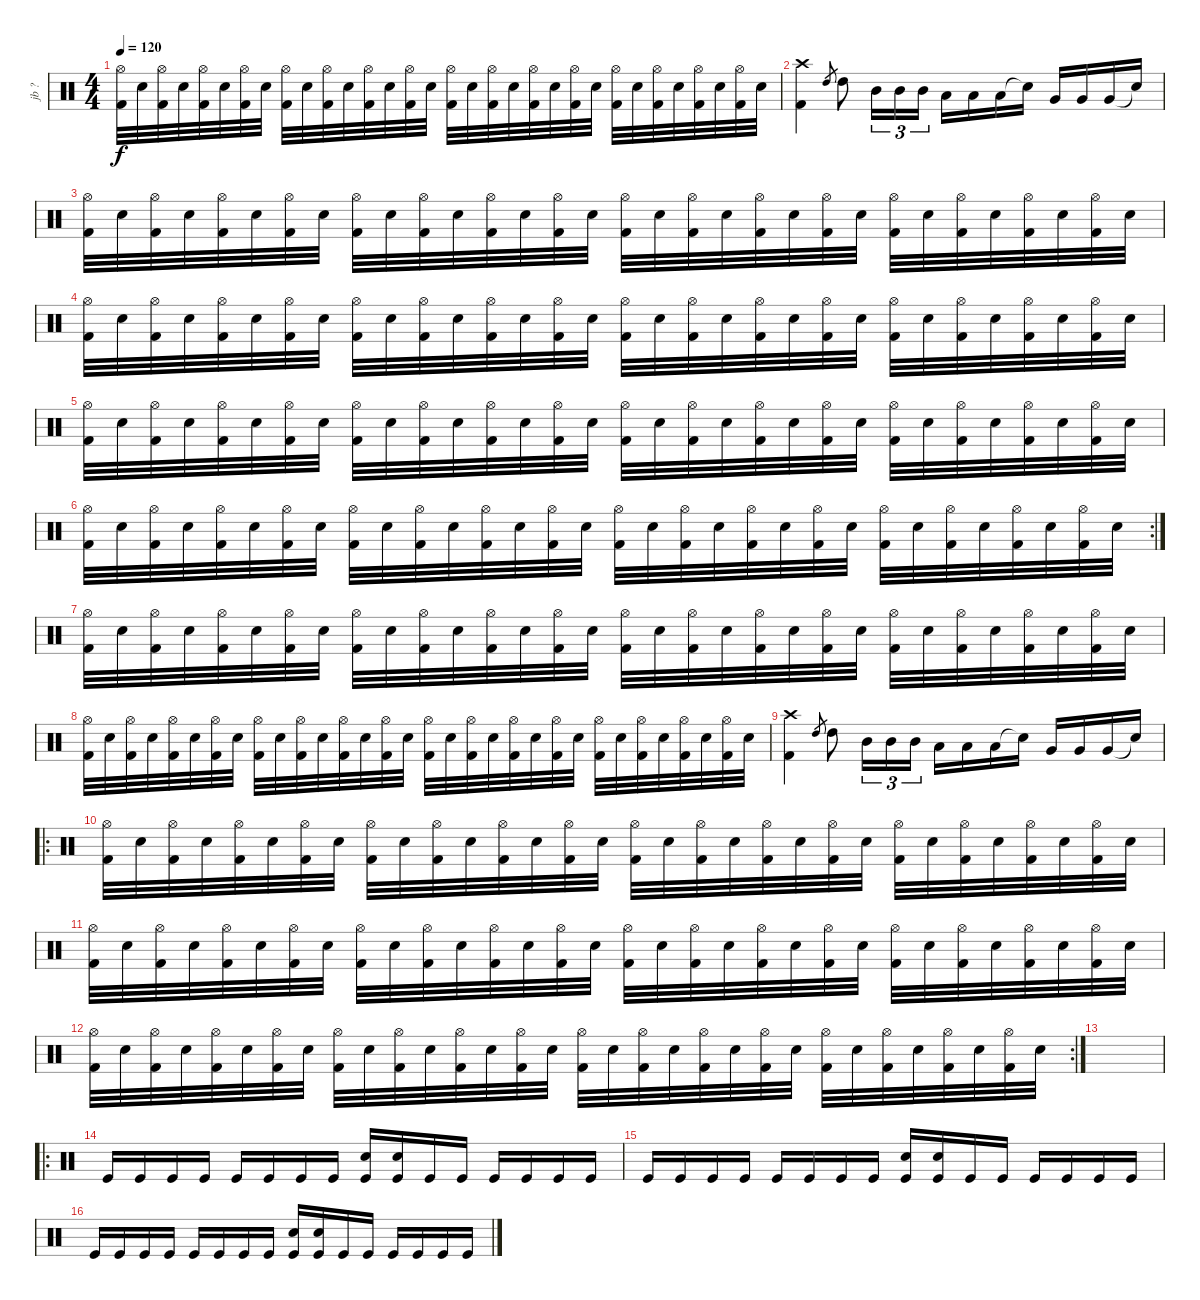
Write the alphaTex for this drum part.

\track ("jb ?" "jb ?") {instrument percussion}
\staff {score}
\articulation defaults
\ts (4 4)
\tempo 120
\clef neutral
\ks c
("Kick (hit) 2" "Hi-Hat (open)").32{dy f} "Electric Snare (hit)".32 ("Kick (hit) 2" "Hi-Hat (open)").32 "Electric Snare (hit)".32 ("Kick (hit) 2" "Hi-Hat (open)").32 "Electric Snare (hit)".32 ("Kick (hit) 2" "Hi-Hat (open)").32 "Electric Snare (hit)".32 ("Kick (hit) 2" "Hi-Hat (open)").32 "Electric Snare (hit)".32 ("Kick (hit) 2" "Hi-Hat (open)").32 "Electric Snare (hit)".32 ("Kick (hit) 2" "Hi-Hat (open)").32 "Electric Snare (hit)".32 ("Kick (hit) 2" "Hi-Hat (open)").32 "Electric Snare (hit)".32 ("Kick (hit) 2" "Hi-Hat (open)").32 "Electric Snare (hit)".32 ("Kick (hit) 2" "Hi-Hat (open)").32 "Electric Snare (hit)".32 ("Kick (hit) 2" "Hi-Hat (open)").32 "Electric Snare (hit)".32 ("Kick (hit) 2" "Hi-Hat (open)").32 "Electric Snare (hit)".32 ("Kick (hit) 2" "Hi-Hat (open)").32 "Electric Snare (hit)".32 ("Kick (hit) 2" "Hi-Hat (open)").32 "Electric Snare (hit)".32 ("Kick (hit) 2" "Hi-Hat (open)").32 "Electric Snare (hit)".32 ("Kick (hit) 2" "Hi-Hat (open)").32 "Electric Snare (hit)".32 |
("Crash high (hit)" "Kick (hit) 2").4 "High Tom (hit)".8{gr} "High Tom (hit)".8 "Mid Tom (hit)".16{tu (3 2)} "Mid Tom (hit)".16{tu (3 2)} "Mid Tom (hit)".16{tu (3 2)} "Low Tom (hit)".16 "Low Tom (hit)".16 "Low Tom (hit)".16 "Snare (hit)"{t}.16 "Very Low Tom (hit)".16 "Very Low Tom (hit)".16 "Very Low Tom (hit)".16 "Snare (hit)"{t}.16 |
("Kick (hit) 2" "Hi-Hat (open)").32 "Electric Snare (hit)".32 ("Kick (hit) 2" "Hi-Hat (open)").32 "Electric Snare (hit)".32 ("Kick (hit) 2" "Hi-Hat (open)").32 "Electric Snare (hit)".32 ("Kick (hit) 2" "Hi-Hat (open)").32 "Electric Snare (hit)".32 ("Kick (hit) 2" "Hi-Hat (open)").32 "Electric Snare (hit)".32 ("Kick (hit) 2" "Hi-Hat (open)").32 "Electric Snare (hit)".32 ("Kick (hit) 2" "Hi-Hat (open)").32 "Electric Snare (hit)".32 ("Kick (hit) 2" "Hi-Hat (open)").32 "Electric Snare (hit)".32 ("Kick (hit) 2" "Hi-Hat (open)").32 "Electric Snare (hit)".32 ("Kick (hit) 2" "Hi-Hat (open)").32 "Electric Snare (hit)".32 ("Kick (hit) 2" "Hi-Hat (open)").32 "Electric Snare (hit)".32 ("Kick (hit) 2" "Hi-Hat (open)").32 "Electric Snare (hit)".32 ("Kick (hit) 2" "Hi-Hat (open)").32 "Electric Snare (hit)".32 ("Kick (hit) 2" "Hi-Hat (open)").32 "Electric Snare (hit)".32 ("Kick (hit) 2" "Hi-Hat (open)").32 "Electric Snare (hit)".32 ("Kick (hit) 2" "Hi-Hat (open)").32 "Electric Snare (hit)".32 |
("Kick (hit) 2" "Hi-Hat (open)").32 "Electric Snare (hit)".32 ("Kick (hit) 2" "Hi-Hat (open)").32 "Electric Snare (hit)".32 ("Kick (hit) 2" "Hi-Hat (open)").32 "Electric Snare (hit)".32 ("Kick (hit) 2" "Hi-Hat (open)").32 "Electric Snare (hit)".32 ("Kick (hit) 2" "Hi-Hat (open)").32 "Electric Snare (hit)".32 ("Kick (hit) 2" "Hi-Hat (open)").32 "Electric Snare (hit)".32 ("Kick (hit) 2" "Hi-Hat (open)").32 "Electric Snare (hit)".32 ("Kick (hit) 2" "Hi-Hat (open)").32 "Electric Snare (hit)".32 ("Kick (hit) 2" "Hi-Hat (open)").32 "Electric Snare (hit)".32 ("Kick (hit) 2" "Hi-Hat (open)").32 "Electric Snare (hit)".32 ("Kick (hit) 2" "Hi-Hat (open)").32 "Electric Snare (hit)".32 ("Kick (hit) 2" "Hi-Hat (open)").32 "Electric Snare (hit)".32 ("Kick (hit) 2" "Hi-Hat (open)").32 "Electric Snare (hit)".32 ("Kick (hit) 2" "Hi-Hat (open)").32 "Electric Snare (hit)".32 ("Kick (hit) 2" "Hi-Hat (open)").32 "Electric Snare (hit)".32 ("Kick (hit) 2" "Hi-Hat (open)").32 "Electric Snare (hit)".32 |
("Kick (hit) 2" "Hi-Hat (open)").32 "Electric Snare (hit)".32 ("Kick (hit) 2" "Hi-Hat (open)").32 "Electric Snare (hit)".32 ("Kick (hit) 2" "Hi-Hat (open)").32 "Electric Snare (hit)".32 ("Kick (hit) 2" "Hi-Hat (open)").32 "Electric Snare (hit)".32 ("Kick (hit) 2" "Hi-Hat (open)").32 "Electric Snare (hit)".32 ("Kick (hit) 2" "Hi-Hat (open)").32 "Electric Snare (hit)".32 ("Kick (hit) 2" "Hi-Hat (open)").32 "Electric Snare (hit)".32 ("Kick (hit) 2" "Hi-Hat (open)").32 "Electric Snare (hit)".32 ("Kick (hit) 2" "Hi-Hat (open)").32 "Electric Snare (hit)".32 ("Kick (hit) 2" "Hi-Hat (open)").32 "Electric Snare (hit)".32 ("Kick (hit) 2" "Hi-Hat (open)").32 "Electric Snare (hit)".32 ("Kick (hit) 2" "Hi-Hat (open)").32 "Electric Snare (hit)".32 ("Kick (hit) 2" "Hi-Hat (open)").32 "Electric Snare (hit)".32 ("Kick (hit) 2" "Hi-Hat (open)").32 "Electric Snare (hit)".32 ("Kick (hit) 2" "Hi-Hat (open)").32 "Electric Snare (hit)".32 ("Kick (hit) 2" "Hi-Hat (open)").32 "Electric Snare (hit)".32 |
\rc 2
("Kick (hit) 2" "Hi-Hat (open)").32 "Electric Snare (hit)".32 ("Kick (hit) 2" "Hi-Hat (open)").32 "Electric Snare (hit)".32 ("Kick (hit) 2" "Hi-Hat (open)").32 "Electric Snare (hit)".32 ("Kick (hit) 2" "Hi-Hat (open)").32 "Electric Snare (hit)".32 ("Kick (hit) 2" "Hi-Hat (open)").32 "Electric Snare (hit)".32 ("Kick (hit) 2" "Hi-Hat (open)").32 "Electric Snare (hit)".32 ("Kick (hit) 2" "Hi-Hat (open)").32 "Electric Snare (hit)".32 ("Kick (hit) 2" "Hi-Hat (open)").32 "Electric Snare (hit)".32 ("Kick (hit) 2" "Hi-Hat (open)").32 "Electric Snare (hit)".32 ("Kick (hit) 2" "Hi-Hat (open)").32 "Electric Snare (hit)".32 ("Kick (hit) 2" "Hi-Hat (open)").32 "Electric Snare (hit)".32 ("Kick (hit) 2" "Hi-Hat (open)").32 "Electric Snare (hit)".32 ("Kick (hit) 2" "Hi-Hat (open)").32 "Electric Snare (hit)".32 ("Kick (hit) 2" "Hi-Hat (open)").32 "Electric Snare (hit)".32 ("Kick (hit) 2" "Hi-Hat (open)").32 "Electric Snare (hit)".32 ("Kick (hit) 2" "Hi-Hat (open)").32 "Electric Snare (hit)".32 |
("Kick (hit) 2" "Hi-Hat (open)").32 "Electric Snare (hit)".32 ("Kick (hit) 2" "Hi-Hat (open)").32 "Electric Snare (hit)".32 ("Kick (hit) 2" "Hi-Hat (open)").32 "Electric Snare (hit)".32 ("Kick (hit) 2" "Hi-Hat (open)").32 "Electric Snare (hit)".32 ("Kick (hit) 2" "Hi-Hat (open)").32 "Electric Snare (hit)".32 ("Kick (hit) 2" "Hi-Hat (open)").32 "Electric Snare (hit)".32 ("Kick (hit) 2" "Hi-Hat (open)").32 "Electric Snare (hit)".32 ("Kick (hit) 2" "Hi-Hat (open)").32 "Electric Snare (hit)".32 ("Kick (hit) 2" "Hi-Hat (open)").32 "Electric Snare (hit)".32 ("Kick (hit) 2" "Hi-Hat (open)").32 "Electric Snare (hit)".32 ("Kick (hit) 2" "Hi-Hat (open)").32 "Electric Snare (hit)".32 ("Kick (hit) 2" "Hi-Hat (open)").32 "Electric Snare (hit)".32 ("Kick (hit) 2" "Hi-Hat (open)").32 "Electric Snare (hit)".32 ("Kick (hit) 2" "Hi-Hat (open)").32 "Electric Snare (hit)".32 ("Kick (hit) 2" "Hi-Hat (open)").32 "Electric Snare (hit)".32 ("Kick (hit) 2" "Hi-Hat (open)").32 "Electric Snare (hit)".32 |
("Kick (hit) 2" "Hi-Hat (open)").32 "Electric Snare (hit)".32 ("Kick (hit) 2" "Hi-Hat (open)").32 "Electric Snare (hit)".32 ("Kick (hit) 2" "Hi-Hat (open)").32 "Electric Snare (hit)".32 ("Kick (hit) 2" "Hi-Hat (open)").32 "Electric Snare (hit)".32 ("Kick (hit) 2" "Hi-Hat (open)").32 "Electric Snare (hit)".32 ("Kick (hit) 2" "Hi-Hat (open)").32 "Electric Snare (hit)".32 ("Kick (hit) 2" "Hi-Hat (open)").32 "Electric Snare (hit)".32 ("Kick (hit) 2" "Hi-Hat (open)").32 "Electric Snare (hit)".32 ("Kick (hit) 2" "Hi-Hat (open)").32 "Electric Snare (hit)".32 ("Kick (hit) 2" "Hi-Hat (open)").32 "Electric Snare (hit)".32 ("Kick (hit) 2" "Hi-Hat (open)").32 "Electric Snare (hit)".32 ("Kick (hit) 2" "Hi-Hat (open)").32 "Electric Snare (hit)".32 ("Kick (hit) 2" "Hi-Hat (open)").32 "Electric Snare (hit)".32 ("Kick (hit) 2" "Hi-Hat (open)").32 "Electric Snare (hit)".32 ("Kick (hit) 2" "Hi-Hat (open)").32 "Electric Snare (hit)".32 ("Kick (hit) 2" "Hi-Hat (open)").32 "Electric Snare (hit)".32 |
("Crash high (hit)" "Kick (hit) 2").4 "High Tom (hit)".8{gr} "High Tom (hit)".8 "Mid Tom (hit)".16{tu (3 2)} "Mid Tom (hit)".16{tu (3 2)} "Mid Tom (hit)".16{tu (3 2)} "Low Tom (hit)".16 "Low Tom (hit)".16 "Low Tom (hit)".16 "Snare (hit)"{t}.16 "Very Low Tom (hit)".16 "Very Low Tom (hit)".16 "Very Low Tom (hit)".16 "Snare (hit)"{t}.16 |
\ro
("Kick (hit) 2" "Hi-Hat (open)").32 "Electric Snare (hit)".32 ("Kick (hit) 2" "Hi-Hat (open)").32 "Electric Snare (hit)".32 ("Kick (hit) 2" "Hi-Hat (open)").32 "Electric Snare (hit)".32 ("Kick (hit) 2" "Hi-Hat (open)").32 "Electric Snare (hit)".32 ("Kick (hit) 2" "Hi-Hat (open)").32 "Electric Snare (hit)".32 ("Kick (hit) 2" "Hi-Hat (open)").32 "Electric Snare (hit)".32 ("Kick (hit) 2" "Hi-Hat (open)").32 "Electric Snare (hit)".32 ("Kick (hit) 2" "Hi-Hat (open)").32 "Electric Snare (hit)".32 ("Kick (hit) 2" "Hi-Hat (open)").32 "Electric Snare (hit)".32 ("Kick (hit) 2" "Hi-Hat (open)").32 "Electric Snare (hit)".32 ("Kick (hit) 2" "Hi-Hat (open)").32 "Electric Snare (hit)".32 ("Kick (hit) 2" "Hi-Hat (open)").32 "Electric Snare (hit)".32 ("Kick (hit) 2" "Hi-Hat (open)").32 "Electric Snare (hit)".32 ("Kick (hit) 2" "Hi-Hat (open)").32 "Electric Snare (hit)".32 ("Kick (hit) 2" "Hi-Hat (open)").32 "Electric Snare (hit)".32 ("Kick (hit) 2" "Hi-Hat (open)").32 "Electric Snare (hit)".32 |
("Kick (hit) 2" "Hi-Hat (open)").32 "Electric Snare (hit)".32 ("Kick (hit) 2" "Hi-Hat (open)").32 "Electric Snare (hit)".32 ("Kick (hit) 2" "Hi-Hat (open)").32 "Electric Snare (hit)".32 ("Kick (hit) 2" "Hi-Hat (open)").32 "Electric Snare (hit)".32 ("Kick (hit) 2" "Hi-Hat (open)").32 "Electric Snare (hit)".32 ("Kick (hit) 2" "Hi-Hat (open)").32 "Electric Snare (hit)".32 ("Kick (hit) 2" "Hi-Hat (open)").32 "Electric Snare (hit)".32 ("Kick (hit) 2" "Hi-Hat (open)").32 "Electric Snare (hit)".32 ("Kick (hit) 2" "Hi-Hat (open)").32 "Electric Snare (hit)".32 ("Kick (hit) 2" "Hi-Hat (open)").32 "Electric Snare (hit)".32 ("Kick (hit) 2" "Hi-Hat (open)").32 "Electric Snare (hit)".32 ("Kick (hit) 2" "Hi-Hat (open)").32 "Electric Snare (hit)".32 ("Kick (hit) 2" "Hi-Hat (open)").32 "Electric Snare (hit)".32 ("Kick (hit) 2" "Hi-Hat (open)").32 "Electric Snare (hit)".32 ("Kick (hit) 2" "Hi-Hat (open)").32 "Electric Snare (hit)".32 ("Kick (hit) 2" "Hi-Hat (open)").32 "Electric Snare (hit)".32 |
\rc 2
("Kick (hit) 2" "Hi-Hat (open)").32 "Electric Snare (hit)".32 ("Kick (hit) 2" "Hi-Hat (open)").32 "Electric Snare (hit)".32 ("Kick (hit) 2" "Hi-Hat (open)").32 "Electric Snare (hit)".32 ("Kick (hit) 2" "Hi-Hat (open)").32 "Electric Snare (hit)".32 ("Kick (hit) 2" "Hi-Hat (open)").32 "Electric Snare (hit)".32 ("Kick (hit) 2" "Hi-Hat (open)").32 "Electric Snare (hit)".32 ("Kick (hit) 2" "Hi-Hat (open)").32 "Electric Snare (hit)".32 ("Kick (hit) 2" "Hi-Hat (open)").32 "Electric Snare (hit)".32 ("Kick (hit) 2" "Hi-Hat (open)").32 "Electric Snare (hit)".32 ("Kick (hit) 2" "Hi-Hat (open)").32 "Electric Snare (hit)".32 ("Kick (hit) 2" "Hi-Hat (open)").32 "Electric Snare (hit)".32 ("Kick (hit) 2" "Hi-Hat (open)").32 "Electric Snare (hit)".32 ("Kick (hit) 2" "Hi-Hat (open)").32 "Electric Snare (hit)".32 ("Kick (hit) 2" "Hi-Hat (open)").32 "Electric Snare (hit)".32 ("Kick (hit) 2" "Hi-Hat (open)").32 "Electric Snare (hit)".32 ("Kick (hit) 2" "Hi-Hat (open)").32 "Electric Snare (hit)".32 |
|
\ro "Kick (hit)".16 "Kick (hit)".16 "Kick (hit)".16 "Kick (hit)".16 "Kick (hit)".16 "Kick (hit)".16 "Kick (hit)".16 "Kick (hit)".16
("Electric Snare (hit)" "Kick (hit)").16 ("Snare (hit) 2" "Kick (hit)").16 "Kick (hit)".16 "Kick (hit)".16 "Kick (hit)".16 "Kick (hit)".16 "Kick (hit)".16 "Kick (hit)".16 |
"Kick (hit)".16 "Kick (hit)".16 "Kick (hit)".16 "Kick (hit)".16 "Kick (hit)".16 "Kick (hit)".16 "Kick (hit)".16 "Kick (hit)".16 ("Electric Snare (hit)" "Kick (hit)").16 ("Snare (hit) 2" "Kick (hit)").16 "Kick (hit)".16 "Kick (hit)".16 "Kick (hit)".16 "Kick (hit)".16 "Kick (hit)".16 "Kick (hit)".16 |
"Kick (hit)".16 "Kick (hit)".16 "Kick (hit)".16 "Kick (hit)".16 "Kick (hit)".16 "Kick (hit)".16 "Kick (hit)".16 "Kick (hit)".16 ("Electric Snare (hit)" "Kick (hit)").16 ("Snare (hit) 2" "Kick (hit)").16 "Kick (hit)".16 "Kick (hit)".16 "Kick (hit)".16 "Kick (hit)".16 "Kick (hit)".16 "Kick (hit)".16
